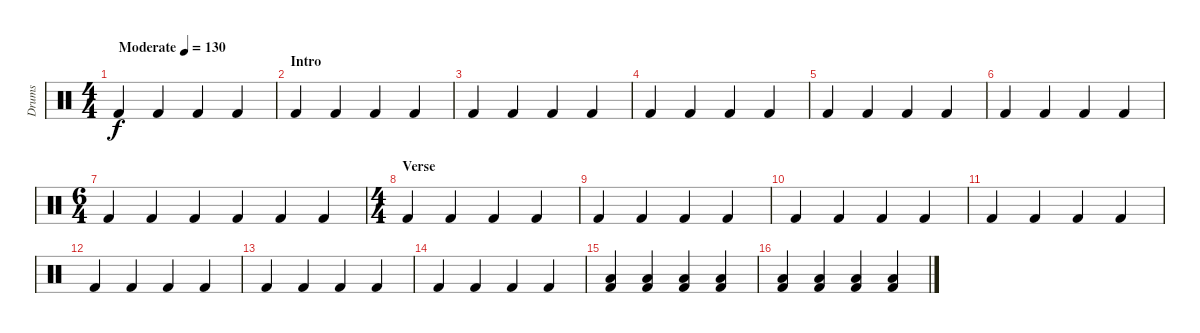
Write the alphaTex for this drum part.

\track ("Drums" "Drums") {instrument percussion}
\staff {score}
\articulation defaults
\ts (4 4)
\tempo (130 "Moderate")
\clef neutral
\ks c "Kick (hit) 2".4{dy f} "Kick (hit) 2".4 "Kick (hit) 2".4 "Kick (hit) 2".4
|
\section ("" "Intro")
"Kick (hit) 2".4 "Kick (hit) 2".4 "Kick (hit) 2".4 "Kick (hit) 2".4 |
"Kick (hit) 2".4 "Kick (hit) 2".4 "Kick (hit) 2".4 "Kick (hit) 2".4 |
"Kick (hit) 2".4 "Kick (hit) 2".4 "Kick (hit) 2".4 "Kick (hit) 2".4 |
"Kick (hit) 2".4 "Kick (hit) 2".4 "Kick (hit) 2".4 "Kick (hit) 2".4 |
"Kick (hit) 2".4 "Kick (hit) 2".4 "Kick (hit) 2".4 "Kick (hit) 2".4 |
\ts (6 4)
"Kick (hit) 2".4 "Kick (hit) 2".4 "Kick (hit) 2".4 "Kick (hit) 2".4 "Kick (hit) 2".4 "Kick (hit) 2".4 |
\ts (4 4)
\section ("" "Verse")
"Kick (hit) 2".4 "Kick (hit) 2".4 "Kick (hit) 2".4 "Kick (hit) 2".4 |
"Kick (hit) 2".4 "Kick (hit) 2".4 "Kick (hit) 2".4 "Kick (hit) 2".4 |
"Kick (hit) 2".4 "Kick (hit) 2".4 "Kick (hit) 2".4 "Kick (hit) 2".4 |
"Kick (hit) 2".4 "Kick (hit) 2".4 "Kick (hit) 2".4 "Kick (hit) 2".4 |
"Kick (hit) 2".4 "Kick (hit) 2".4 "Kick (hit) 2".4 "Kick (hit) 2".4 |
"Kick (hit) 2".4 "Kick (hit) 2".4 "Kick (hit) 2".4 "Kick (hit) 2".4 |
"Kick (hit) 2".4 "Kick (hit) 2".4 "Kick (hit) 2".4 "Kick (hit) 2".4 |
("Low Floor Tom (hit)" "Kick (hit) 2").4 ("Low Floor Tom (hit)" "Kick (hit) 2").4 ("Low Floor Tom (hit)" "Kick (hit) 2").4 ("Low Floor Tom (hit)" "Kick (hit) 2").4 |
("Low Floor Tom (hit)" "Kick (hit) 2").4 ("Low Floor Tom (hit)" "Kick (hit) 2").4 ("Low Floor Tom (hit)" "Kick (hit) 2").4 ("Low Floor Tom (hit)" "Kick (hit) 2").4
